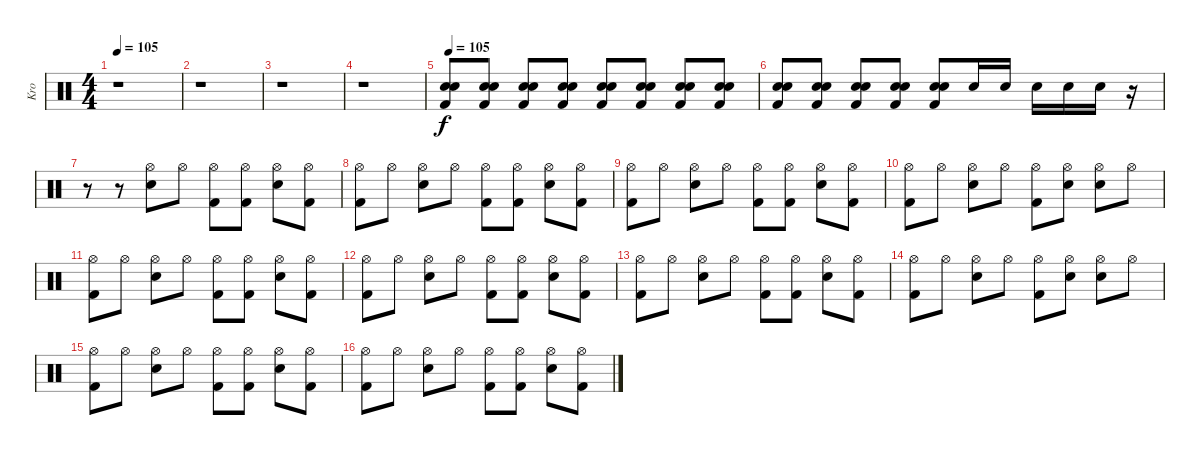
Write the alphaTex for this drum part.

\track ("Kro" "Kro") {instrument percussion}
\staff {score}
\articulation defaults
\ts (4 4)
\tempo 105
\clef neutral
\ks c
r.1{dy f} |
r.1 |
r.1 |
r.1 |
\tempo 105
("Electric Snare (hit)" "Electric Snare (hit)" "Kick (hit) 2").8 ("Electric Snare (hit)" "Electric Snare (hit)" "Kick (hit) 2").8 ("Electric Snare (hit)" "Electric Snare (hit)" "Kick (hit) 2").8 ("Electric Snare (hit)" "Electric Snare (hit)" "Kick (hit) 2").8 ("Electric Snare (hit)" "Electric Snare (hit)" "Kick (hit) 2").8 ("Electric Snare (hit)" "Electric Snare (hit)" "Kick (hit) 2").8 ("Electric Snare (hit)" "Electric Snare (hit)" "Kick (hit) 2").8 ("Electric Snare (hit)" "Electric Snare (hit)" "Kick (hit) 2").8 |
("Electric Snare (hit)" "Electric Snare (hit)" "Kick (hit) 2").8 ("Electric Snare (hit)" "Electric Snare (hit)" "Kick (hit) 2").8 ("Electric Snare (hit)" "Electric Snare (hit)" "Kick (hit) 2").8 ("Electric Snare (hit)" "Electric Snare (hit)" "Kick (hit) 2").8 ("Electric Snare (hit)" "Electric Snare (hit)" "Kick (hit) 2").8 "Electric Snare (hit)".16 "Electric Snare (hit)".16 "Electric Snare (hit)".16 "Electric Snare (hit)".16 "Electric Snare (hit)".16 r.16 |
r.8 r.8 ("Hi-Hat (open)" "Electric Snare (hit)").8 "Hi-Hat (open)".8 ("Hi-Hat (open)" "Kick (hit) 2").8 ("Hi-Hat (open)" "Kick (hit) 2").8 ("Hi-Hat (open)" "Electric Snare (hit)").8 ("Hi-Hat (open)" "Kick (hit) 2").8 |
("Hi-Hat (open)" "Kick (hit) 2").8 "Hi-Hat (open)".8 ("Hi-Hat (open)" "Electric Snare (hit)").8 "Hi-Hat (open)".8 ("Hi-Hat (open)" "Kick (hit) 2").8 ("Hi-Hat (open)" "Kick (hit) 2").8 ("Hi-Hat (open)" "Electric Snare (hit)").8 ("Hi-Hat (open)" "Kick (hit) 2").8 |
("Hi-Hat (open)" "Kick (hit) 2").8 "Hi-Hat (open)".8 ("Hi-Hat (open)" "Electric Snare (hit)").8 "Hi-Hat (open)".8 ("Hi-Hat (open)" "Kick (hit) 2").8 ("Hi-Hat (open)" "Kick (hit) 2").8 ("Hi-Hat (open)" "Electric Snare (hit)").8 ("Hi-Hat (open)" "Kick (hit) 2").8 |
("Hi-Hat (open)" "Kick (hit) 2").8 "Hi-Hat (open)".8 ("Hi-Hat (open)" "Electric Snare (hit)").8 "Hi-Hat (open)".8 ("Hi-Hat (open)" "Kick (hit) 2").8 ("Hi-Hat (open)" "Electric Snare (hit)").8 ("Hi-Hat (open)" "Electric Snare (hit)").8 "Hi-Hat (open)".8 |
("Hi-Hat (open)" "Kick (hit) 2").8 "Hi-Hat (open)".8 ("Hi-Hat (open)" "Electric Snare (hit)").8 "Hi-Hat (open)".8 ("Hi-Hat (open)" "Kick (hit) 2").8 ("Hi-Hat (open)" "Kick (hit) 2").8 ("Hi-Hat (open)" "Electric Snare (hit)").8 ("Hi-Hat (open)" "Kick (hit) 2").8 |
("Hi-Hat (open)" "Kick (hit) 2").8 "Hi-Hat (open)".8 ("Hi-Hat (open)" "Electric Snare (hit)").8 "Hi-Hat (open)".8 ("Hi-Hat (open)" "Kick (hit) 2").8 ("Hi-Hat (open)" "Kick (hit) 2").8 ("Hi-Hat (open)" "Electric Snare (hit)").8 ("Hi-Hat (open)" "Kick (hit) 2").8 |
("Hi-Hat (open)" "Kick (hit) 2").8 "Hi-Hat (open)".8 ("Hi-Hat (open)" "Electric Snare (hit)").8 "Hi-Hat (open)".8 ("Hi-Hat (open)" "Kick (hit) 2").8 ("Hi-Hat (open)" "Kick (hit) 2").8 ("Hi-Hat (open)" "Electric Snare (hit)").8 ("Hi-Hat (open)" "Kick (hit) 2").8 |
("Hi-Hat (open)" "Kick (hit) 2").8 "Hi-Hat (open)".8 ("Hi-Hat (open)" "Electric Snare (hit)").8 "Hi-Hat (open)".8 ("Hi-Hat (open)" "Kick (hit) 2").8 ("Hi-Hat (open)" "Electric Snare (hit)").8 ("Hi-Hat (open)" "Electric Snare (hit)").8 "Hi-Hat (open)".8 |
("Hi-Hat (open)" "Kick (hit) 2").8 "Hi-Hat (open)".8 ("Hi-Hat (open)" "Electric Snare (hit)").8 "Hi-Hat (open)".8 ("Hi-Hat (open)" "Kick (hit) 2").8 ("Hi-Hat (open)" "Kick (hit) 2").8 ("Hi-Hat (open)" "Electric Snare (hit)").8 ("Hi-Hat (open)" "Kick (hit) 2").8 |
("Hi-Hat (open)" "Kick (hit) 2").8 "Hi-Hat (open)".8 ("Hi-Hat (open)" "Electric Snare (hit)").8 "Hi-Hat (open)".8 ("Hi-Hat (open)" "Kick (hit) 2").8 ("Hi-Hat (open)" "Kick (hit) 2").8 ("Hi-Hat (open)" "Electric Snare (hit)").8 ("Hi-Hat (open)" "Kick (hit) 2").8
